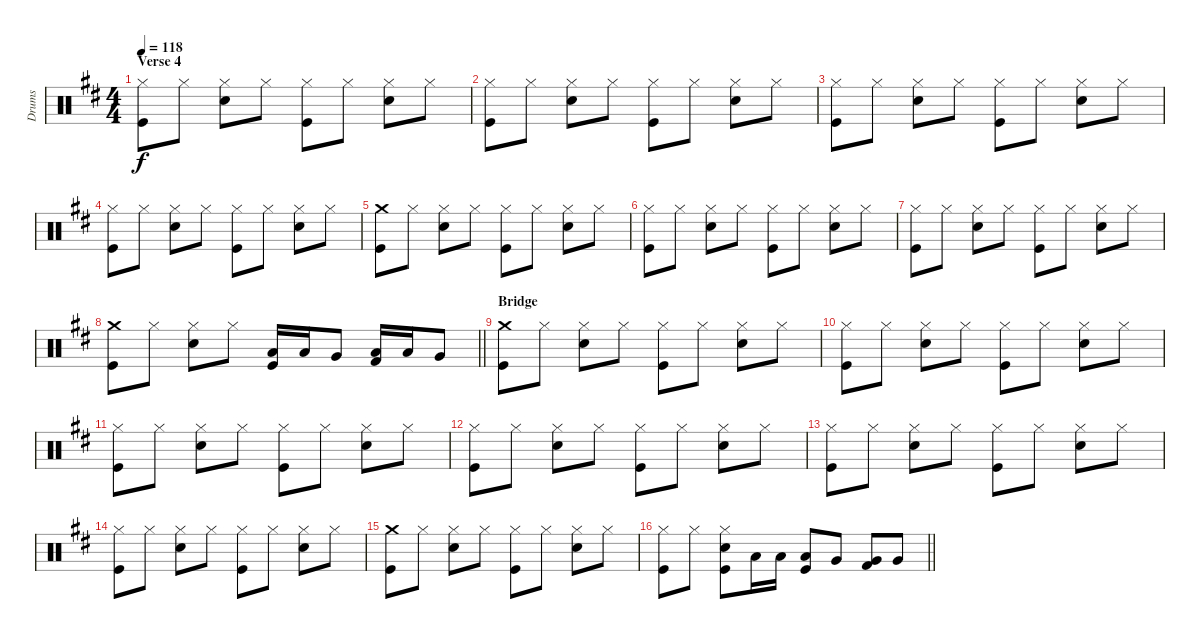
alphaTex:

\track ("Drums" "Drums") {instrument percussion}
\staff {score}
\articulation defaults
\ts (4 4)
\section ("" "Verse 4")
\tempo 118
\clef neutral
\ks d
("Hi-Hat (closed)" "Kick (hit)").8{dy f} "Hi-Hat (closed)".8 ("Hi-Hat (closed)" "Electric Snare (hit)").8 "Hi-Hat (closed)".8 ("Hi-Hat (closed)" "Kick (hit)").8 "Hi-Hat (closed)".8 ("Hi-Hat (closed)" "Electric Snare (hit)").8 "Hi-Hat (closed)".8 |
("Hi-Hat (closed)" "Kick (hit)").8 "Hi-Hat (closed)".8 ("Hi-Hat (closed)" "Electric Snare (hit)").8 "Hi-Hat (closed)".8 ("Hi-Hat (closed)" "Kick (hit)").8 "Hi-Hat (closed)".8 ("Hi-Hat (closed)" "Electric Snare (hit)").8 "Hi-Hat (closed)".8 |
("Hi-Hat (closed)" "Kick (hit)").8 "Hi-Hat (closed)".8 ("Hi-Hat (closed)" "Electric Snare (hit)").8 "Hi-Hat (closed)".8 ("Hi-Hat (closed)" "Kick (hit)").8 "Hi-Hat (closed)".8 ("Hi-Hat (closed)" "Electric Snare (hit)").8 "Hi-Hat (closed)".8 |
("Hi-Hat (closed)" "Kick (hit)").8 "Hi-Hat (closed)".8 ("Hi-Hat (closed)" "Electric Snare (hit)").8 "Hi-Hat (closed)".8 ("Hi-Hat (closed)" "Kick (hit)").8 "Hi-Hat (closed)".8 ("Hi-Hat (closed)" "Electric Snare (hit)").8 "Hi-Hat (closed)".8 |
("Crash medium (hit)" "Kick (hit)").8 "Hi-Hat (closed)".8 ("Hi-Hat (closed)" "Electric Snare (hit)").8 "Hi-Hat (closed)".8 ("Hi-Hat (closed)" "Kick (hit)").8 "Hi-Hat (closed)".8 ("Hi-Hat (closed)" "Electric Snare (hit)").8 "Hi-Hat (closed)".8 |
("Hi-Hat (closed)" "Kick (hit)").8 "Hi-Hat (closed)".8 ("Hi-Hat (closed)" "Electric Snare (hit)").8 "Hi-Hat (closed)".8 ("Hi-Hat (closed)" "Kick (hit)").8 "Hi-Hat (closed)".8 ("Hi-Hat (closed)" "Electric Snare (hit)").8 "Hi-Hat (closed)".8 |
("Hi-Hat (closed)" "Kick (hit)").8 "Hi-Hat (closed)".8 ("Hi-Hat (closed)" "Electric Snare (hit)").8 "Hi-Hat (closed)".8 ("Hi-Hat (closed)" "Kick (hit)").8 "Hi-Hat (closed)".8 ("Hi-Hat (closed)" "Electric Snare (hit)").8 "Hi-Hat (closed)".8 |
\barLineRight lightlight
("Crash medium (hit)" "Kick (hit)").8 "Hi-Hat (closed)".8 ("Hi-Hat (closed)" "Electric Snare (hit)").8 "Hi-Hat (closed)".8 ("Low Tom (hit)" "Kick (hit)").16 "Low Tom (hit)".16 "Very Low Tom (hit)".8 ("Low Tom (hit)" "Kick (hit) 2").16 "Low Tom (hit)".16 "Very Low Tom (hit)".8 |
\section ("" "Bridge")
("Crash medium (hit)" "Kick (hit)").8 "Hi-Hat (closed)".8 ("Hi-Hat (closed)" "Electric Snare (hit)").8 "Hi-Hat (closed)".8 ("Hi-Hat (closed)" "Kick (hit)").8 "Hi-Hat (closed)".8 ("Hi-Hat (closed)" "Electric Snare (hit)").8 "Hi-Hat (closed)".8 |
("Hi-Hat (closed)" "Kick (hit)").8 "Hi-Hat (closed)".8 ("Hi-Hat (closed)" "Electric Snare (hit)").8 "Hi-Hat (closed)".8 ("Hi-Hat (closed)" "Kick (hit)").8 "Hi-Hat (closed)".8 ("Hi-Hat (closed)" "Electric Snare (hit)").8 "Hi-Hat (closed)".8 |
("Hi-Hat (closed)" "Kick (hit)").8 "Hi-Hat (closed)".8 ("Hi-Hat (closed)" "Electric Snare (hit)").8 "Hi-Hat (closed)".8 ("Hi-Hat (closed)" "Kick (hit)").8 "Hi-Hat (closed)".8 ("Hi-Hat (closed)" "Electric Snare (hit)").8 "Hi-Hat (closed)".8 |
("Hi-Hat (closed)" "Kick (hit)").8 "Hi-Hat (closed)".8 ("Hi-Hat (closed)" "Electric Snare (hit)").8 "Hi-Hat (closed)".8 ("Hi-Hat (closed)" "Kick (hit)").8 "Hi-Hat (closed)".8 ("Hi-Hat (closed)" "Electric Snare (hit)").8 "Hi-Hat (closed)".8 |
("Hi-Hat (closed)" "Kick (hit)").8 "Hi-Hat (closed)".8 ("Hi-Hat (closed)" "Electric Snare (hit)").8 "Hi-Hat (closed)".8 ("Hi-Hat (closed)" "Kick (hit)").8 "Hi-Hat (closed)".8 ("Hi-Hat (closed)" "Electric Snare (hit)").8 "Hi-Hat (closed)".8 |
("Hi-Hat (closed)" "Kick (hit)").8 "Hi-Hat (closed)".8 ("Hi-Hat (closed)" "Electric Snare (hit)").8 "Hi-Hat (closed)".8 ("Hi-Hat (closed)" "Kick (hit)").8 "Hi-Hat (closed)".8 ("Hi-Hat (closed)" "Electric Snare (hit)").8 "Hi-Hat (closed)".8 |
("Crash medium (hit)" "Kick (hit)").8 "Hi-Hat (closed)".8 ("Hi-Hat (closed)" "Electric Snare (hit)").8 "Hi-Hat (closed)".8 ("Hi-Hat (closed)" "Kick (hit)").8 "Hi-Hat (closed)".8 ("Hi-Hat (closed)" "Electric Snare (hit)").8 "Hi-Hat (closed)".8 |
\barLineRight lightlight
("Hi-Hat (closed)" "Kick (hit)").8 "Hi-Hat (closed)".8 ("Hi-Hat (closed)" "Electric Snare (hit)" "Kick (hit)").8 "Low Tom (hit)".16 "Low Tom (hit)".16 ("Low Tom (hit)" "Kick (hit)").8 "Very Low Tom (hit)".8 ("Very Low Tom (hit)" "Kick (hit) 2").8 "Very Low Tom (hit)".8
